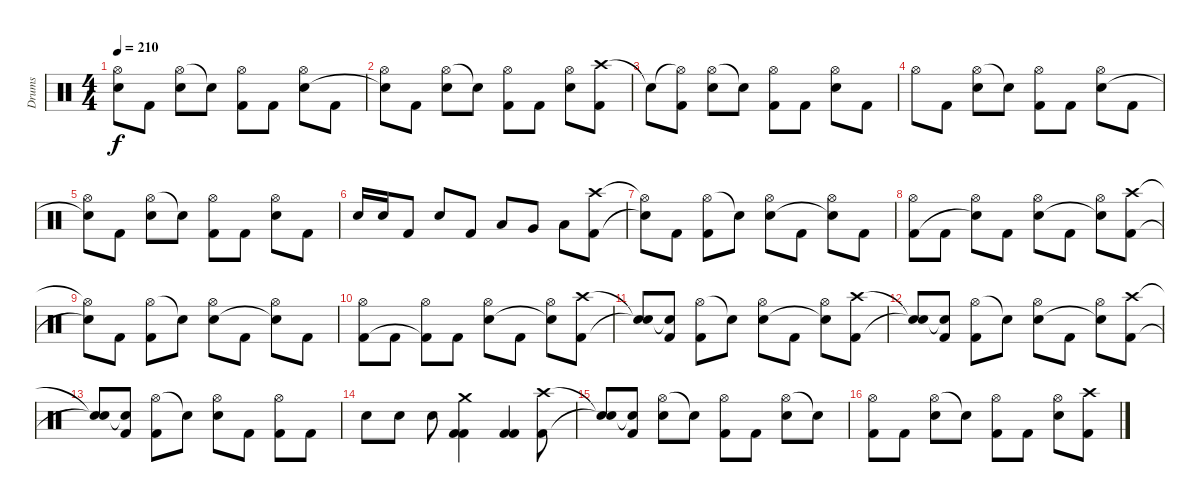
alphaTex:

\track ("Drums" "Drums") {instrument percussion}
\staff {score}
\articulation defaults
\ts (4 4)
\tempo 210
\clef neutral
\ks c
("Hi-Hat (open)"{t} "Snare (hit)"{t}).8{dy f} "Kick (hit) 2".8 ("Hi-Hat (open)" "Electric Snare (hit)").8 "Electric Snare (hit)"{t}.8 ("Hi-Hat (open)" "Kick (hit) 2").8 "Kick (hit) 2".8 ("Hi-Hat (open)" "Electric Snare (hit)").8 "Kick (hit) 2".8 |
("Hi-Hat (open)" "Snare (hit)"{t}).8 "Kick (hit) 2".8 ("Hi-Hat (open)" "Electric Snare (hit)").8 "Snare (hit)"{t}.8 ("Hi-Hat (open)" "Kick (hit) 2").8 "Kick (hit) 2".8 ("Hi-Hat (open)" "Electric Snare (hit)").8 ("Crash high (hit)" "Kick (hit) 2").8 |
"Snare (hit)"{t}.8 ("Hi-Hat (open)"{t} "Kick (hit) 2").8 ("Hi-Hat (open)" "Electric Snare (hit)").8 "Snare (hit)"{t}.8 ("Hi-Hat (open)" "Kick (hit) 2").8 "Kick (hit) 2".8 ("Hi-Hat (open)" "Electric Snare (hit)").8 "Kick (hit) 2".8 |
"Hi-Hat (open)".8 "Kick (hit) 2".8 ("Hi-Hat (open)" "Electric Snare (hit)").8 "Snare (hit)"{t}.8 ("Hi-Hat (open)" "Kick (hit) 2").8 "Kick (hit) 2".8 ("Hi-Hat (open)" "Electric Snare (hit)").8 "Kick (hit) 2".8 |
("Hi-Hat (open)" "Snare (hit)"{t}).8 "Kick (hit) 2".8 ("Hi-Hat (open)" "Electric Snare (hit)").8 "Electric Snare (hit)"{t}.8 ("Hi-Hat (open)" "Kick (hit) 2").8 "Kick (hit) 2".8 ("Hi-Hat (open)" "Electric Snare (hit)").8 "Kick (hit) 2".8 |
"Electric Snare (hit)".16 "Electric Snare (hit)".16 "Kick (hit) 2".8 "Electric Snare (hit)".8 "Kick (hit) 2".8 "Low Tom (hit)".8 "Very Low Tom (hit)".8 "Low Floor Tom (hit)".8 ("Crash high (hit)" "Kick (hit) 2").8 |
("Hi-Hat (open)"{t} "Snare (hit)"{t}).8 "Kick (hit) 2".8 ("Hi-Hat (open)" "Kick (hit) 2").8 "Snare (hit)"{t}.8 ("Hi-Hat (open)" "Electric Snare (hit)").8 "Kick (hit) 2".8 ("Hi-Hat (open)" "Snare (hit)"{t}).8 "Kick (hit) 2".8 |
("Hi-Hat (open)" "Kick (hit) 2").8 "Kick (hit) 2".8 ("Hi-Hat (open)" "Snare (hit)"{t}).8 "Kick (hit) 2".8 ("Hi-Hat (open)" "Electric Snare (hit)").8 "Kick (hit) 2".8 ("Hi-Hat (open)" "Snare (hit)"{t}).8 ("Crash high (hit)" "Kick (hit) 2").8 |
("Hi-Hat (open)"{t} "Snare (hit)"{t}).8 "Kick (hit) 2".8 ("Hi-Hat (open)" "Kick (hit) 2").8 "Snare (hit)"{t}.8 ("Hi-Hat (open)" "Electric Snare (hit)").8 "Kick (hit) 2".8 ("Hi-Hat (open)" "Snare (hit)"{t}).8 "Kick (hit) 2".8 |
("Hi-Hat (open)" "Kick (hit) 2").8 "Kick (hit) 2".8 ("Hi-Hat (open)" "Kick (hit) 2"{t}).8 "Kick (hit) 2".8 ("Hi-Hat (open)" "Electric Snare (hit)").8 "Kick (hit) 2".8 ("Hi-Hat (open)" "Snare (hit)"{t}).8 ("Crash high (hit)" "Kick (hit) 2").8 |
("Snare (hit)"{t} "Snare (hit)"{t}).8 ("Snare (hit)"{t} "Kick (hit) 2").8 ("Hi-Hat (open)" "Kick (hit) 2").8 "Snare (hit)"{t}.8 ("Hi-Hat (open)" "Electric Snare (hit)").8 "Kick (hit) 2".8 ("Hi-Hat (open)" "Snare (hit)"{t}).8 ("Crash high (hit)" "Kick (hit) 2").8 |
("Snare (hit)"{t} "Snare (hit)"{t}).8 ("Snare (hit)"{t} "Kick (hit) 2").8 ("Hi-Hat (open)" "Kick (hit) 2").8 "Electric Snare (hit)"{t}.8 ("Hi-Hat (open)" "Electric Snare (hit)").8 "Kick (hit) 2".8 ("Hi-Hat (open)" "Snare (hit)"{t}).8 ("Crash high (hit)" "Kick (hit) 2").8 |
("Snare (hit)"{t} "Snare (hit)"{t}).8 ("Snare (hit)"{t} "Kick (hit) 2").8 ("Hi-Hat (open)" "Kick (hit) 2").8 "Snare (hit)"{t}.8 ("Hi-Hat (open)" "Electric Snare (hit)").8 "Kick (hit) 2".8 ("Hi-Hat (open)" "Kick (hit) 2").8 "Kick (hit) 2".8 |
"Electric Snare (hit)".8 "Electric Snare (hit)".8 "Electric Snare (hit)".8 ("Crash medium (hit)" "Kick (hit) 2" "Kick (hit) 2").4 ("Kick (hit) 2" "Kick (hit) 2").4 ("Crash high (hit)" "Kick (hit) 2").8 |
("Snare (hit)"{t} "Snare (hit)"{t}).8 ("Snare (hit)"{t} "Kick (hit) 2").8 ("Hi-Hat (open)" "Electric Snare (hit)").8 "Snare (hit)"{t}.8 ("Hi-Hat (open)" "Kick (hit) 2").8 "Kick (hit) 2".8 ("Hi-Hat (open)" "Electric Snare (hit)").8 "Snare (hit)"{t}.8 |
("Hi-Hat (open)" "Kick (hit) 2").8 "Kick (hit) 2".8 ("Hi-Hat (open)" "Electric Snare (hit)").8 "Snare (hit)"{t}.8 ("Hi-Hat (open)" "Kick (hit) 2").8 "Kick (hit) 2".8 ("Hi-Hat (open)" "Electric Snare (hit)").8 ("Crash high (hit)" "Kick (hit) 2").8
